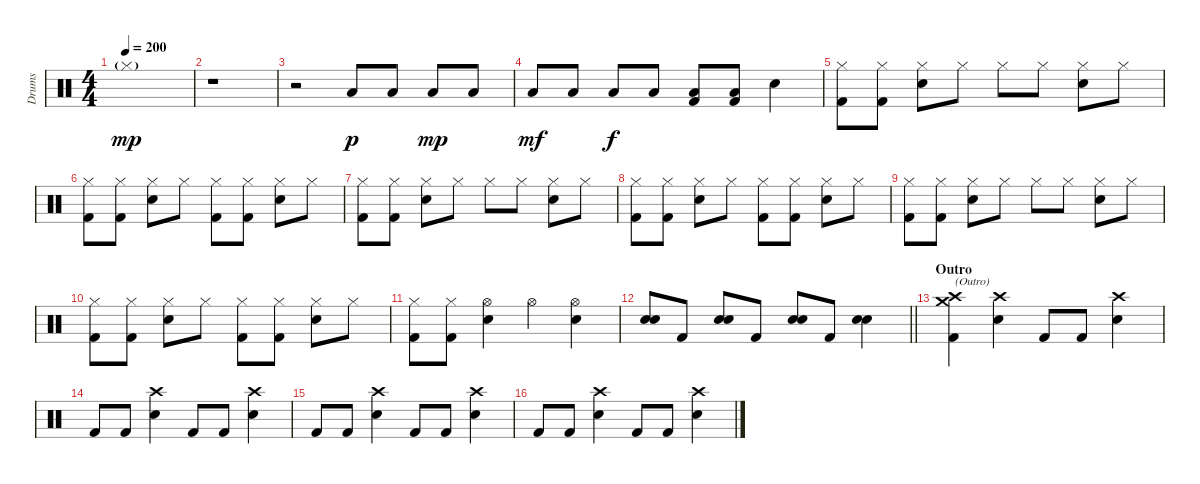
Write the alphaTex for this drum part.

\track ("Drums" "Drums") {instrument percussion}
\staff {score}
\articulation defaults
\ts (4 4)
\tempo 200
\clef neutral
\ks c "Hi-Hat (closed)"{g}.1{dy mp}
|
r.1 |
r.2 "Low Floor Tom (hit)".8{dy p} "Low Floor Tom (hit)".8 "Low Floor Tom (hit)".8{dy mp} "Low Floor Tom (hit)".8 |
"Low Floor Tom (hit)".8{dy mf} "Low Floor Tom (hit)".8 "Low Floor Tom (hit)".8{dy f} "Low Floor Tom (hit)".8 ("Low Floor Tom (hit)" "Kick (hit) 2").8 ("Low Floor Tom (hit)" "Kick (hit) 2").8 "Electric Snare (hit)".4 |
("Hi-Hat (closed)" "Kick (hit) 2").8 ("Hi-Hat (closed)" "Kick (hit) 2").8 ("Hi-Hat (closed)" "Electric Snare (hit)").8 "Hi-Hat (closed)".8 "Hi-Hat (closed)".8 "Hi-Hat (closed)".8 ("Hi-Hat (closed)" "Electric Snare (hit)").8 "Hi-Hat (closed)".8 |
("Hi-Hat (closed)" "Kick (hit) 2").8 ("Hi-Hat (closed)" "Kick (hit) 2").8 ("Hi-Hat (closed)" "Electric Snare (hit)").8 "Hi-Hat (closed)".8 ("Hi-Hat (closed)" "Kick (hit) 2").8 ("Hi-Hat (closed)" "Kick (hit) 2").8 ("Hi-Hat (closed)" "Electric Snare (hit)").8 "Hi-Hat (closed)".8 |
("Hi-Hat (closed)" "Kick (hit) 2").8 ("Hi-Hat (closed)" "Kick (hit) 2").8 ("Hi-Hat (closed)" "Electric Snare (hit)").8 "Hi-Hat (closed)".8 "Hi-Hat (closed)".8 "Hi-Hat (closed)".8 ("Hi-Hat (closed)" "Electric Snare (hit)").8 "Hi-Hat (closed)".8 |
("Hi-Hat (closed)" "Kick (hit) 2").8 ("Hi-Hat (closed)" "Kick (hit) 2").8 ("Hi-Hat (closed)" "Electric Snare (hit)").8 "Hi-Hat (closed)".8 ("Hi-Hat (closed)" "Kick (hit) 2").8 ("Hi-Hat (closed)" "Kick (hit) 2").8 ("Hi-Hat (closed)" "Electric Snare (hit)").8 "Hi-Hat (closed)".8 |
("Hi-Hat (closed)" "Kick (hit) 2").8 ("Hi-Hat (closed)" "Kick (hit) 2").8 ("Hi-Hat (closed)" "Electric Snare (hit)").8 "Hi-Hat (closed)".8 "Hi-Hat (closed)".8 "Hi-Hat (closed)".8 ("Hi-Hat (closed)" "Electric Snare (hit)").8 "Hi-Hat (closed)".8 |
("Hi-Hat (closed)" "Kick (hit) 2").8 ("Hi-Hat (closed)" "Kick (hit) 2").8 ("Hi-Hat (closed)" "Electric Snare (hit)").8 "Hi-Hat (closed)".8 ("Hi-Hat (closed)" "Kick (hit) 2").8 ("Hi-Hat (closed)" "Kick (hit) 2").8 ("Hi-Hat (closed)" "Electric Snare (hit)").8 "Hi-Hat (closed)".8 |
("Hi-Hat (closed)" "Kick (hit) 2").8 ("Hi-Hat (closed)" "Kick (hit) 2").8 ("Hi-Hat (open)" "Electric Snare (hit)").4 "Hi-Hat (open)".4 ("Hi-Hat (open)" "Electric Snare (hit)").4 |
\barLineRight lightlight
("Electric Snare (hit)" "Electric Snare (hit)").8 "Kick (hit) 2".8 ("Electric Snare (hit)" "Electric Snare (hit)").8 "Kick (hit) 2".8 ("Electric Snare (hit)" "Electric Snare (hit)").8 "Kick (hit) 2".8 ("Electric Snare (hit)" "Electric Snare (hit)").4 |
\section ("" "Outro")
("Crash medium (hit)" "Crash high (hit)" "Kick (hit) 2").4{txt "(Outro)"} ("Crash high (hit)" "Electric Snare (hit)").4 "Kick (hit) 2".8 "Kick (hit) 2".8 ("Crash high (hit)" "Electric Snare (hit)").4 |
"Kick (hit) 2".8 "Kick (hit) 2".8 ("Crash high (hit)" "Electric Snare (hit)").4 "Kick (hit) 2".8 "Kick (hit) 2".8 ("Crash high (hit)" "Electric Snare (hit)").4 |
"Kick (hit) 2".8 "Kick (hit) 2".8 ("Crash high (hit)" "Electric Snare (hit)").4 "Kick (hit) 2".8 "Kick (hit) 2".8 ("Crash high (hit)" "Electric Snare (hit)").4 |
"Kick (hit) 2".8 "Kick (hit) 2".8 ("Crash high (hit)" "Electric Snare (hit)").4 "Kick (hit) 2".8 "Kick (hit) 2".8 ("Crash high (hit)" "Electric Snare (hit)").4
